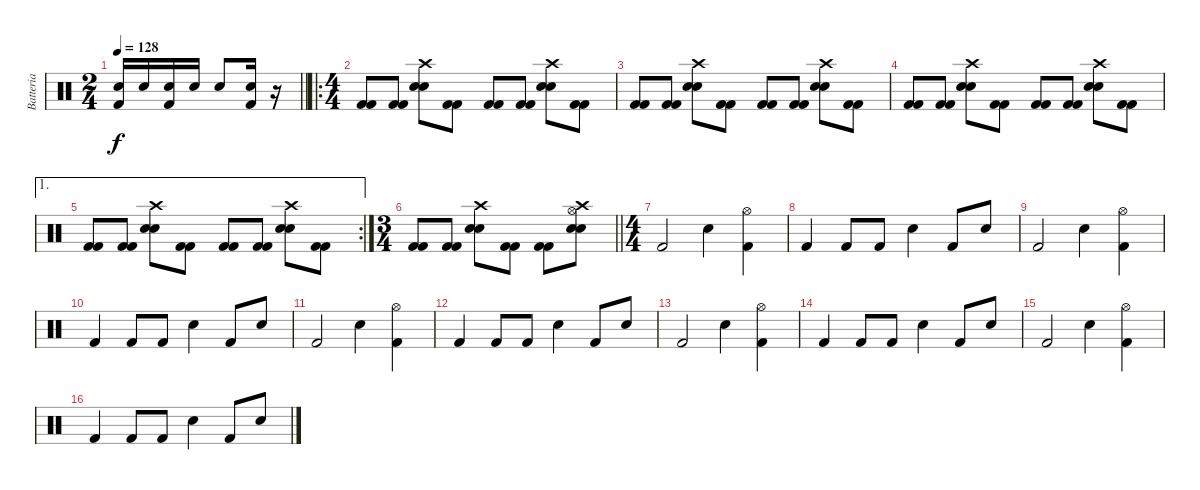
\track ("Batteria" "Batteria") {instrument percussion}
\staff {score}
\articulation defaults
\ts (2 4)
\tempo 128
\clef neutral
\barLineRight lightlight
\ks c
("Snare (hit) 2" "Kick (hit) 2").16{dy f} "Snare (hit) 2".16 ("Snare (hit) 2" "Kick (hit) 2").16 "Snare (hit) 2".16 "Snare (hit) 2".8 ("Electric Snare (hit)" "Kick (hit) 2").16 r.16 |
\ro
\ts (4 4)
("Kick (hit) 2" "Kick (hit) 2").8 ("Kick (hit) 2" "Kick (hit) 2").8 ("Crash high (hit)" "Electric Snare (hit)" "Snare (hit) 2").8 ("Kick (hit) 2" "Kick (hit) 2").8 ("Kick (hit) 2" "Kick (hit) 2").8 ("Kick (hit) 2" "Kick (hit) 2").8 ("Crash high (hit)" "Electric Snare (hit)" "Snare (hit) 2").8 ("Kick (hit) 2" "Kick (hit) 2").8 |
("Kick (hit) 2" "Kick (hit) 2").8 ("Kick (hit) 2" "Kick (hit) 2").8 ("Crash high (hit)" "Electric Snare (hit)" "Snare (hit) 2").8 ("Kick (hit) 2" "Kick (hit) 2").8 ("Kick (hit) 2" "Kick (hit) 2").8 ("Kick (hit) 2" "Kick (hit) 2").8 ("Crash high (hit)" "Electric Snare (hit)" "Snare (hit) 2").8 ("Kick (hit) 2" "Kick (hit) 2").8 |
("Kick (hit) 2" "Kick (hit) 2").8 ("Kick (hit) 2" "Kick (hit) 2").8 ("Crash high (hit)" "Electric Snare (hit)" "Snare (hit) 2").8 ("Kick (hit) 2" "Kick (hit) 2").8 ("Kick (hit) 2" "Kick (hit) 2").8 ("Kick (hit) 2" "Kick (hit) 2").8 ("Crash high (hit)" "Electric Snare (hit)" "Snare (hit) 2").8 ("Kick (hit) 2" "Kick (hit) 2").8 |
\ae 1
\rc 2
("Kick (hit) 2" "Kick (hit) 2").8 ("Kick (hit) 2" "Kick (hit) 2").8 ("Crash high (hit)" "Electric Snare (hit)" "Snare (hit) 2").8 ("Kick (hit) 2" "Kick (hit) 2").8 ("Kick (hit) 2" "Kick (hit) 2").8 ("Kick (hit) 2" "Kick (hit) 2").8 ("Crash high (hit)" "Electric Snare (hit)" "Snare (hit) 2").8 ("Kick (hit) 2" "Kick (hit) 2").8 |
\ts (3 4)
\barLineRight lightlight
("Kick (hit) 2" "Kick (hit) 2").8 ("Kick (hit) 2" "Kick (hit) 2").8 ("Crash high (hit)" "Electric Snare (hit)" "Snare (hit) 2").8 ("Kick (hit) 2" "Kick (hit) 2").8 ("Kick (hit) 2" "Kick (hit) 2").8 ("Hi-Hat (open)" "Crash high (hit)" "Snare (hit) 2" "Electric Snare (hit)").8 |
\ts (4 4)
"Kick (hit) 2".2 "Snare (hit) 2".4 ("Hi-Hat (open)" "Kick (hit) 2").4 |
"Kick (hit) 2".4 "Kick (hit) 2".8 "Kick (hit) 2".8 "Snare (hit) 2".4 "Kick (hit) 2".8 "Snare (hit) 2".8 |
"Kick (hit) 2".2 "Snare (hit) 2".4 ("Hi-Hat (open)" "Kick (hit) 2").4 |
"Kick (hit) 2".4 "Kick (hit) 2".8 "Kick (hit) 2".8 "Snare (hit) 2".4 "Kick (hit) 2".8 "Snare (hit) 2".8 |
"Kick (hit) 2".2 "Snare (hit) 2".4 ("Hi-Hat (open)" "Kick (hit) 2").4 |
"Kick (hit) 2".4 "Kick (hit) 2".8 "Kick (hit) 2".8 "Snare (hit) 2".4 "Kick (hit) 2".8 "Snare (hit) 2".8 |
"Kick (hit) 2".2 "Snare (hit) 2".4 ("Hi-Hat (open)" "Kick (hit) 2").4 |
"Kick (hit) 2".4 "Kick (hit) 2".8 "Kick (hit) 2".8 "Snare (hit) 2".4 "Kick (hit) 2".8 "Snare (hit) 2".8 |
"Kick (hit) 2".2 "Snare (hit) 2".4 ("Hi-Hat (open)" "Kick (hit) 2").4 |
"Kick (hit) 2".4 "Kick (hit) 2".8 "Kick (hit) 2".8 "Snare (hit) 2".4 "Kick (hit) 2".8 "Snare (hit) 2".8
